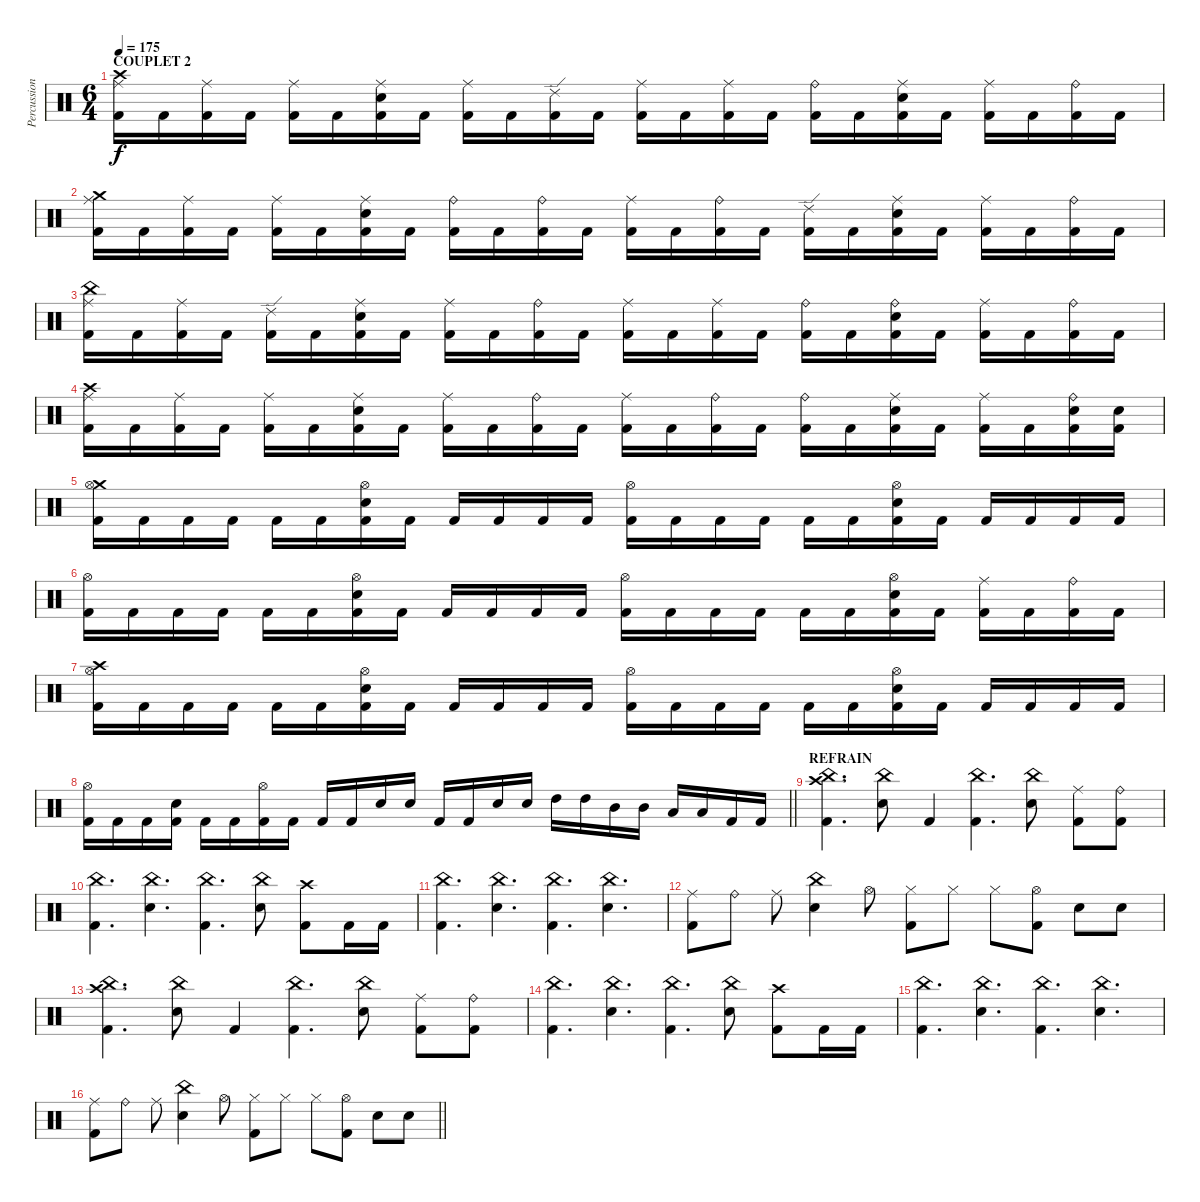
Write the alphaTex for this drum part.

\track ("Percussions" "Percussion") {instrument percussion}
\staff {score}
\articulation defaults
\ts (6 4)
\section ("" "COUPLET 2")
\tempo 175
\clef neutral
\ks c
("Crash high (hit)" "Ride (middle)" "Kick (hit) 2").16{dy f} "Kick (hit) 2".16 ("Ride (middle)" "Kick (hit) 2").16 "Kick (hit) 2".16 ("Ride (middle)" "Kick (hit) 2").16 "Kick (hit) 2".16 ("Ride (middle)" "Electric Snare (hit)" "Kick (hit) 2").16 "Kick (hit) 2".16 ("Ride (middle)" "Kick (hit) 2").16 "Kick (hit) 2".16 ("Ride (edge) 2" "Kick (hit) 2").16 "Kick (hit) 2".16 ("Ride (middle)" "Kick (hit) 2").16 "Kick (hit) 2".16 ("Ride (middle)" "Kick (hit) 2").16 "Kick (hit) 2".16 ("Ride (bell)" "Kick (hit) 2").16 "Kick (hit) 2".16 ("Ride (middle)" "Electric Snare (hit)" "Kick (hit) 2").16 "Kick (hit) 2".16 ("Ride (middle)" "Kick (hit) 2").16 "Kick (hit) 2".16 ("Ride (bell)" "Kick (hit) 2").16 "Kick (hit) 2".16 |
("Crash medium (hit)" "Ride (middle)" "Kick (hit) 2").16 "Kick (hit) 2".16 ("Ride (middle)" "Kick (hit) 2").16 "Kick (hit) 2".16 ("Ride (middle)" "Kick (hit) 2").16 "Kick (hit) 2".16 ("Ride (middle)" "Electric Snare (hit)" "Kick (hit) 2").16 "Kick (hit) 2".16 ("Ride (bell)" "Kick (hit) 2").16 "Kick (hit) 2".16 ("Ride (bell)" "Kick (hit) 2").16 "Kick (hit) 2".16 ("Ride (middle)" "Kick (hit) 2").16 "Kick (hit) 2".16 ("Ride (bell)" "Kick (hit) 2").16 "Kick (hit) 2".16 ("Ride (edge) 2" "Kick (hit) 2").16 "Kick (hit) 2".16 ("Ride (middle)" "Electric Snare (hit)" "Kick (hit) 2").16 "Kick (hit) 2".16 ("Ride (middle)" "Kick (hit) 2").16 "Kick (hit) 2".16 ("Ride (bell)" "Kick (hit) 2").16 "Kick (hit) 2".16 |
("China (hit)" "Ride (middle)" "Kick (hit) 2").16 "Kick (hit) 2".16 ("Ride (middle)" "Kick (hit) 2").16 "Kick (hit) 2".16 ("Ride (edge) 2" "Kick (hit) 2").16 "Kick (hit) 2".16 ("Ride (middle)" "Electric Snare (hit)" "Kick (hit) 2").16 "Kick (hit) 2".16 ("Ride (middle)" "Kick (hit) 2").16 "Kick (hit) 2".16 ("Ride (bell)" "Kick (hit) 2").16 "Kick (hit) 2".16 ("Ride (middle)" "Kick (hit) 2").16 "Kick (hit) 2".16 ("Ride (middle)" "Kick (hit) 2").16 "Kick (hit) 2".16 ("Ride (bell)" "Kick (hit) 2").16 "Kick (hit) 2".16 ("Ride (bell)" "Electric Snare (hit)" "Kick (hit) 2").16 "Kick (hit) 2".16 ("Ride (middle)" "Kick (hit) 2").16 "Kick (hit) 2".16 ("Ride (bell)" "Kick (hit) 2").16 "Kick (hit) 2".16 |
("Crash high (hit)" "Ride (middle)" "Kick (hit) 2").16 "Kick (hit) 2".16 ("Ride (middle)" "Kick (hit) 2").16 "Kick (hit) 2".16 ("Ride (middle)" "Kick (hit) 2").16 "Kick (hit) 2".16 ("Ride (middle)" "Electric Snare (hit)" "Kick (hit) 2").16 "Kick (hit) 2".16 ("Ride (middle)" "Kick (hit) 2").16 "Kick (hit) 2".16 ("Ride (bell)" "Kick (hit) 2").16 "Kick (hit) 2".16 ("Ride (middle)" "Kick (hit) 2").16 "Kick (hit) 2".16 ("Ride (bell)" "Kick (hit) 2").16 "Kick (hit) 2".16 ("Ride (bell)" "Kick (hit) 2").16 "Kick (hit) 2".16 ("Ride (middle)" "Electric Snare (hit)" "Kick (hit) 2").16 "Kick (hit) 2".16 ("Ride (middle)" "Kick (hit) 2").16 "Kick (hit) 2".16 ("Ride (bell)" "Electric Snare (hit)" "Kick (hit) 2").16 ("Electric Snare (hit)" "Kick (hit) 2").16 |
("Crash medium (hit)" "Hi-Hat (open)" "Kick (hit) 2").16 "Kick (hit) 2".16 "Kick (hit) 2".16 "Kick (hit) 2".16 "Kick (hit) 2".16 "Kick (hit) 2".16 ("Hi-Hat (open)" "Electric Snare (hit)" "Kick (hit) 2").16 "Kick (hit) 2".16 "Kick (hit) 2".16 "Kick (hit) 2".16 "Kick (hit) 2".16 "Kick (hit) 2".16 ("Hi-Hat (open)" "Kick (hit) 2").16 "Kick (hit) 2".16 "Kick (hit) 2".16 "Kick (hit) 2".16 "Kick (hit) 2".16 "Kick (hit) 2".16 ("Hi-Hat (open)" "Electric Snare (hit)" "Kick (hit) 2").16 "Kick (hit) 2".16 "Kick (hit) 2".16 "Kick (hit) 2".16 "Kick (hit) 2".16 "Kick (hit) 2".16 |
("Hi-Hat (open)" "Kick (hit) 2").16 "Kick (hit) 2".16 "Kick (hit) 2".16 "Kick (hit) 2".16 "Kick (hit) 2".16 "Kick (hit) 2".16 ("Hi-Hat (open)" "Electric Snare (hit)" "Kick (hit) 2").16 "Kick (hit) 2".16 "Kick (hit) 2".16 "Kick (hit) 2".16 "Kick (hit) 2".16 "Kick (hit) 2".16 ("Hi-Hat (open)" "Kick (hit) 2").16 "Kick (hit) 2".16 "Kick (hit) 2".16 "Kick (hit) 2".16 "Kick (hit) 2".16 "Kick (hit) 2".16 ("Hi-Hat (open)" "Electric Snare (hit)" "Kick (hit) 2").16 "Kick (hit) 2".16 ("Ride (middle)" "Kick (hit) 2").16 "Kick (hit) 2".16 ("Ride (bell)" "Kick (hit) 2").16 "Kick (hit) 2".16 |
("Crash high (hit)" "Hi-Hat (open)" "Kick (hit) 2").16 "Kick (hit) 2".16 "Kick (hit) 2".16 "Kick (hit) 2".16 "Kick (hit) 2".16 "Kick (hit) 2".16 ("Hi-Hat (open)" "Electric Snare (hit)" "Kick (hit) 2").16 "Kick (hit) 2".16 "Kick (hit) 2".16 "Kick (hit) 2".16 "Kick (hit) 2".16 "Kick (hit) 2".16 ("Hi-Hat (open)" "Kick (hit) 2").16 "Kick (hit) 2".16 "Kick (hit) 2".16 "Kick (hit) 2".16 "Kick (hit) 2".16 "Kick (hit) 2".16 ("Hi-Hat (open)" "Electric Snare (hit)" "Kick (hit) 2").16 "Kick (hit) 2".16 "Kick (hit) 2".16 "Kick (hit) 2".16 "Kick (hit) 2".16 "Kick (hit) 2".16 |
\barLineRight lightlight
("Hi-Hat (open)" "Kick (hit) 2").16 "Kick (hit) 2".16 "Kick (hit) 2".16 ("Electric Snare (hit)" "Kick (hit) 2").16 "Kick (hit) 2".16 "Kick (hit) 2".16 ("Hi-Hat (open)" "Kick (hit) 2").16 "Kick (hit) 2".16 "Kick (hit) 2".16 "Kick (hit) 2".16 "Electric Snare (hit)".16 "Electric Snare (hit)".16 "Kick (hit) 2".16 "Kick (hit) 2".16 "Electric Snare (hit)".16 "Electric Snare (hit)".16 "High Tom (hit)".16 "High Tom (hit)".16 "Mid Tom (hit)".16 "Mid Tom (hit)".16 "Low Tom (hit)".16 "Low Tom (hit)".16 "Kick (hit) 2".16 "Kick (hit) 2".16 |
\section ("" "REFRAIN")
("China (hit)" "Crash high (hit)" "Kick (hit) 2").4{d} ("China (hit)" "Electric Snare (hit)").8 "Kick (hit) 2".4 ("China (hit)" "Kick (hit) 2").4{d} ("China (hit)" "Electric Snare (hit)").8 ("Ride (middle)" "Kick (hit) 2").8 ("Ride (bell)" "Kick (hit) 2").8 |
("China (hit)" "Kick (hit) 2").4{d} ("China (hit)" "Electric Snare (hit)").4{d} ("China (hit)" "Kick (hit) 2").4{d} ("China (hit)" "Electric Snare (hit)").8 ("Crash high (hit)" "Kick (hit) 2").8 "Kick (hit) 2".16 "Kick (hit) 2".16 |
("China (hit)" "Kick (hit) 2").4{d} ("China (hit)" "Electric Snare (hit)").4{d} ("China (hit)" "Kick (hit) 2").4{d} ("China (hit)" "Electric Snare (hit)").4{d} |
("Ride (middle)" "Kick (hit) 2").8 "Ride (bell)".8 "Ride (middle)".8 ("China (hit)" "Electric Snare (hit)").4 "Hi-Hat (open)".8 ("Hi-Hat (closed)" "Kick (hit) 2").8 "Hi-Hat (closed)".8 "Hi-Hat (closed)".8 ("Hi-Hat (open)" "Kick (hit) 2").8 "Electric Snare (hit)".8 "Electric Snare (hit)".8 |
("China (hit)" "Crash high (hit)" "Kick (hit) 2").4{d} ("China (hit)" "Electric Snare (hit)").8 "Kick (hit) 2".4 ("China (hit)" "Kick (hit) 2").4{d} ("China (hit)" "Electric Snare (hit)").8 ("Ride (middle)" "Kick (hit) 2").8 ("Ride (bell)" "Kick (hit) 2").8 |
("China (hit)" "Kick (hit) 2").4{d} ("China (hit)" "Electric Snare (hit)").4{d} ("China (hit)" "Kick (hit) 2").4{d} ("China (hit)" "Electric Snare (hit)").8 ("Crash high (hit)" "Kick (hit) 2").8 "Kick (hit) 2".16 "Kick (hit) 2".16 |
("China (hit)" "Kick (hit) 2").4{d} ("China (hit)" "Electric Snare (hit)").4{d} ("China (hit)" "Kick (hit) 2").4{d} ("China (hit)" "Electric Snare (hit)").4{d} |
\barLineRight lightlight
("Ride (middle)" "Kick (hit) 2").8 "Ride (bell)".8 "Ride (middle)".8 ("China (hit)" "Electric Snare (hit)").4 "Hi-Hat (open)".8 ("Hi-Hat (closed)" "Kick (hit) 2").8 "Hi-Hat (closed)".8 "Hi-Hat (closed)".8 ("Hi-Hat (open)" "Kick (hit) 2").8 "Electric Snare (hit)".8 "Electric Snare (hit)".8
